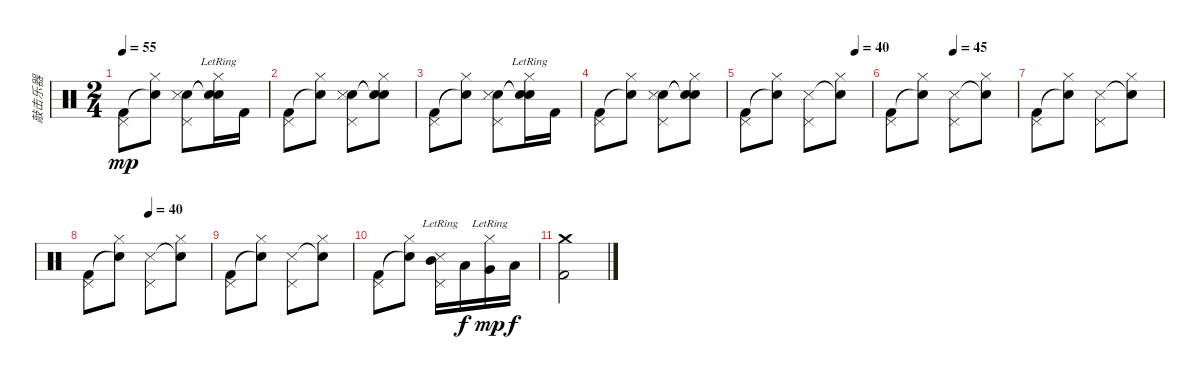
\track ("敲击乐器" "敲击乐器") {instrument percussion}
\staff {score}
\articulation defaults
\ts (2 4)
\tempo 55
\clef neutral
\ks c
("Kick (hit) 2" "Pedal Hi-Hat (hit)").8{dy mp} ("Snare (hit)"{t} "Hi-Hat (closed)").8 ("Snare (hit) 2" "Snare (side stick) 3" "Pedal Hi-Hat (hit)").8 ("Snare (hit)"{t} "Snare (hit)"{t} "Hi-Hat (closed)"{lr}).16 "Kick (hit) 2".16 |
("Kick (hit) 2" "Pedal Hi-Hat (hit)").8 ("Snare (hit)"{t} "Hi-Hat (closed)").8 ("Snare (hit) 2" "Snare (side stick) 3" "Pedal Hi-Hat (hit)").8 ("Snare (hit)"{t} "Snare (hit)"{t} "Hi-Hat (closed)").8 |
("Kick (hit) 2" "Pedal Hi-Hat (hit)").8 ("Snare (hit)"{t} "Hi-Hat (closed)").8 ("Snare (hit) 2" "Snare (side stick) 3" "Pedal Hi-Hat (hit)").8 ("Snare (hit)"{t} "Snare (hit)"{t} "Hi-Hat (closed)"{lr}).16 "Kick (hit) 2".16 |
("Kick (hit) 2" "Pedal Hi-Hat (hit)").8 ("Snare (hit)"{t} "Hi-Hat (closed)").8 ("Snare (hit) 2" "Snare (side stick) 3" "Pedal Hi-Hat (hit)").8 ("Snare (hit)"{t} "Snare (hit)"{t} "Hi-Hat (closed)").8 |
\tempo (40 0.875)
("Kick (hit) 2" "Pedal Hi-Hat (hit)").8 ("Snare (hit)"{t} "Hi-Hat (closed)").8 ("Snare (side stick) 3" "Pedal Hi-Hat (hit)").8 ("Snare (hit)"{t} "Hi-Hat (closed)").8 |
\tempo (45 0.5)
("Kick (hit) 2" "Pedal Hi-Hat (hit)").8 ("Snare (hit)"{t} "Hi-Hat (closed)").8 ("Snare (side stick) 3" "Pedal Hi-Hat (hit)").8 ("Snare (hit)"{t} "Hi-Hat (closed)").8 |
("Kick (hit) 2" "Pedal Hi-Hat (hit)").8 ("Snare (hit)"{t} "Hi-Hat (closed)").8 ("Snare (side stick) 3" "Pedal Hi-Hat (hit)").8 ("Snare (hit)"{t} "Hi-Hat (closed)").8 |
\tempo (40 0.5)
("Kick (hit) 2" "Pedal Hi-Hat (hit)").8 ("Snare (hit)"{t} "Hi-Hat (closed)").8 ("Snare (side stick) 3" "Pedal Hi-Hat (hit)").8 ("Snare (hit)"{t} "Hi-Hat (closed)").8 |
("Kick (hit) 2" "Pedal Hi-Hat (hit)").8 ("Snare (hit)"{t} "Hi-Hat (closed)").8 ("Snare (side stick) 3" "Pedal Hi-Hat (hit)").8 ("Snare (hit)"{t} "Hi-Hat (closed)").8 |
("Kick (hit) 2" "Pedal Hi-Hat (hit)").8 ("Snare (hit)"{t} "Hi-Hat (closed)").8 ("Mid Tom (hit)" "Snare (side stick) 3"{lr} "Pedal Hi-Hat (hit)"{lr}).16 "Low Tom (hit)".16{dy f} ("Very Low Tom (hit)" "Hi-Hat (closed)"{lr}).16{dy mp} "Low Floor Tom (hit)".16{dy f} |
("Kick (hit) 2" "Crash medium (hit)").2
